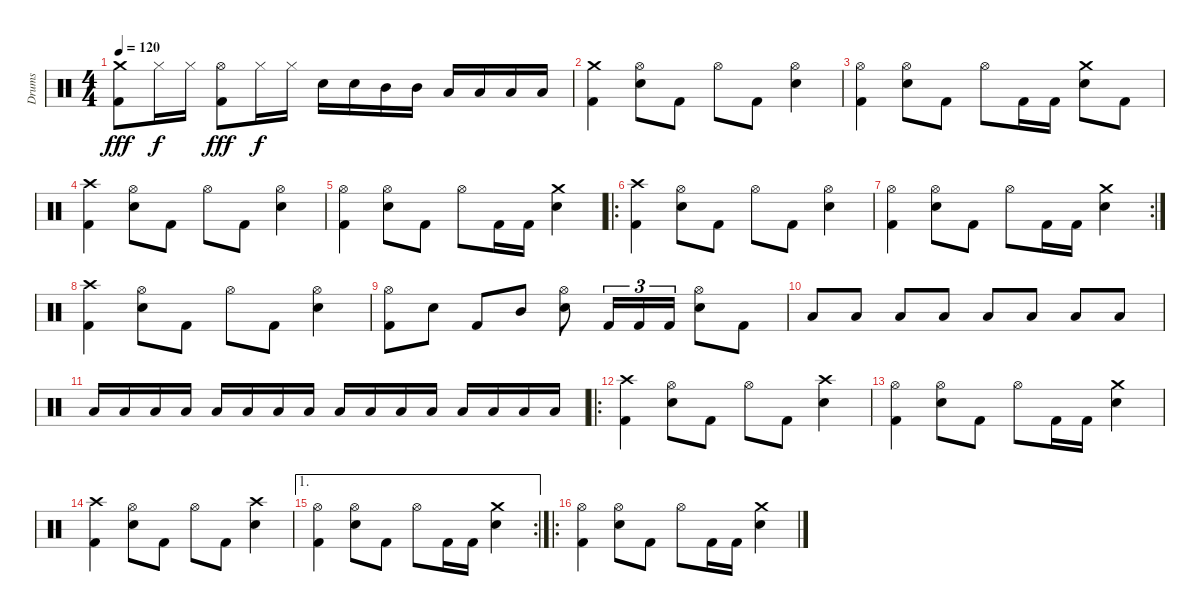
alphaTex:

\track ("Drums" "Drums") {instrument percussion}
\staff {score}
\articulation defaults
\ts (4 4)
\tempo 120
\clef neutral
\ks c
("Crash medium (hit)" "Kick (hit) 2").8{dy fff} "Hi-Hat (closed)".16{dy f} "Hi-Hat (closed)".16 ("Hi-Hat (open)" "Kick (hit) 2").8{dy fff} "Hi-Hat (closed)".16{dy f} "Hi-Hat (closed)".16 "Snare (hit) 2".16 "Snare (hit) 2".16 "Mid Tom (hit)".16 "Mid Tom (hit)".16 "Low Tom (hit)".16 "Low Tom (hit)".16 "Low Floor Tom (hit)".16 "Low Floor Tom (hit)".16 |
("Kick (hit) 2" "Crash medium (hit)").4 ("Snare (hit) 2" "Hi-Hat (open)").8 "Kick (hit) 2".8 "Hi-Hat (open)".8 "Kick (hit) 2".8 ("Hi-Hat (open)" "Snare (hit) 2").4 |
("Kick (hit) 2" "Hi-Hat (open)").4 ("Snare (hit) 2" "Hi-Hat (open)").8 "Kick (hit) 2".8 "Hi-Hat (open)".8 "Kick (hit) 2".16 "Kick (hit) 2".16 ("Crash medium (hit)" "Snare (hit) 2").8 "Kick (hit) 2".8 |
("Kick (hit) 2" "Crash high (hit)").4 ("Snare (hit) 2" "Hi-Hat (open)").8 "Kick (hit) 2".8 "Hi-Hat (open)".8 "Kick (hit) 2".8 ("Hi-Hat (open)" "Snare (hit) 2").4 |
("Kick (hit) 2" "Hi-Hat (open)").4 ("Snare (hit) 2" "Hi-Hat (open)").8 "Kick (hit) 2".8 "Hi-Hat (open)".8 "Kick (hit) 2".16 "Kick (hit) 2".16 ("Crash medium (hit)" "Snare (hit) 2").4 |
\ro
("Kick (hit) 2" "Crash high (hit)").4 ("Snare (hit) 2" "Hi-Hat (open)").8 "Kick (hit) 2".8 "Hi-Hat (open)".8 "Kick (hit) 2".8 ("Hi-Hat (open)" "Snare (hit) 2").4 |
\rc 2
("Kick (hit) 2" "Hi-Hat (open)").4 ("Snare (hit) 2" "Hi-Hat (open)").8 "Kick (hit) 2".8 "Hi-Hat (open)".8 "Kick (hit) 2".16 "Kick (hit) 2".16 ("Crash medium (hit)" "Snare (hit) 2").4 |
("Kick (hit) 2" "Crash high (hit)").4 ("Snare (hit) 2" "Hi-Hat (open)").8 "Kick (hit) 2".8 "Hi-Hat (open)".8 "Kick (hit) 2".8 ("Hi-Hat (open)" "Snare (hit) 2").4 |
("Hi-Hat (open)" "Kick (hit) 2").8 "Snare (hit) 2".8 "Kick (hit) 2".8 "Mid Tom (hit)".8 ("Hi-Hat (open)" "Snare (hit) 2").8 "Kick (hit) 2".16{tu (3 2)} "Kick (hit) 2".16{tu (3 2)} "Kick (hit) 2".16{tu (3 2)} ("Snare (hit) 2" "Hi-Hat (open)").8 "Kick (hit) 2".8 |
"Low Floor Tom (hit)".8 "Low Floor Tom (hit)".8 "Low Floor Tom (hit)".8 "Low Floor Tom (hit)".8 "Low Floor Tom (hit)".8 "Low Floor Tom (hit)".8 "Low Floor Tom (hit)".8 "Low Floor Tom (hit)".8 |
"Low Floor Tom (hit)".16 "Low Floor Tom (hit)".16 "Low Floor Tom (hit)".16 "Low Floor Tom (hit)".16 "Low Floor Tom (hit)".16 "Low Floor Tom (hit)".16 "Low Floor Tom (hit)".16 "Low Floor Tom (hit)".16 "Low Floor Tom (hit)".16 "Low Floor Tom (hit)".16 "Low Floor Tom (hit)".16 "Low Floor Tom (hit)".16 "Low Floor Tom (hit)".16 "Low Floor Tom (hit)".16 "Low Floor Tom (hit)".16 "Low Floor Tom (hit)".16 |
\ro
("Kick (hit) 2" "Crash high (hit)").4 ("Snare (hit) 2" "Hi-Hat (open)").8 "Kick (hit) 2".8 "Hi-Hat (open)".8 "Kick (hit) 2".8 ("Crash high (hit)" "Snare (hit) 2").4 |
("Kick (hit) 2" "Hi-Hat (open)").4 ("Snare (hit) 2" "Hi-Hat (open)").8 "Kick (hit) 2".8 "Hi-Hat (open)".8 "Kick (hit) 2".16 "Kick (hit) 2".16 ("Crash medium (hit)" "Snare (hit) 2").4 |
("Kick (hit) 2" "Crash high (hit)").4 ("Snare (hit) 2" "Hi-Hat (open)").8 "Kick (hit) 2".8 "Hi-Hat (open)".8 "Kick (hit) 2".8 ("Crash high (hit)" "Snare (hit) 2").4 |
\ae 1
\rc 2
("Kick (hit) 2" "Hi-Hat (open)").4 ("Snare (hit) 2" "Hi-Hat (open)").8 "Kick (hit) 2".8 "Hi-Hat (open)".8 "Kick (hit) 2".16 "Kick (hit) 2".16 ("Crash medium (hit)" "Snare (hit) 2").4 |
\ro
("Kick (hit) 2" "Hi-Hat (open)").4 ("Snare (hit) 2" "Hi-Hat (open)").8 "Kick (hit) 2".8 "Hi-Hat (open)".8 "Kick (hit) 2".16 "Kick (hit) 2".16 ("Crash medium (hit)" "Snare (hit) 2").4
